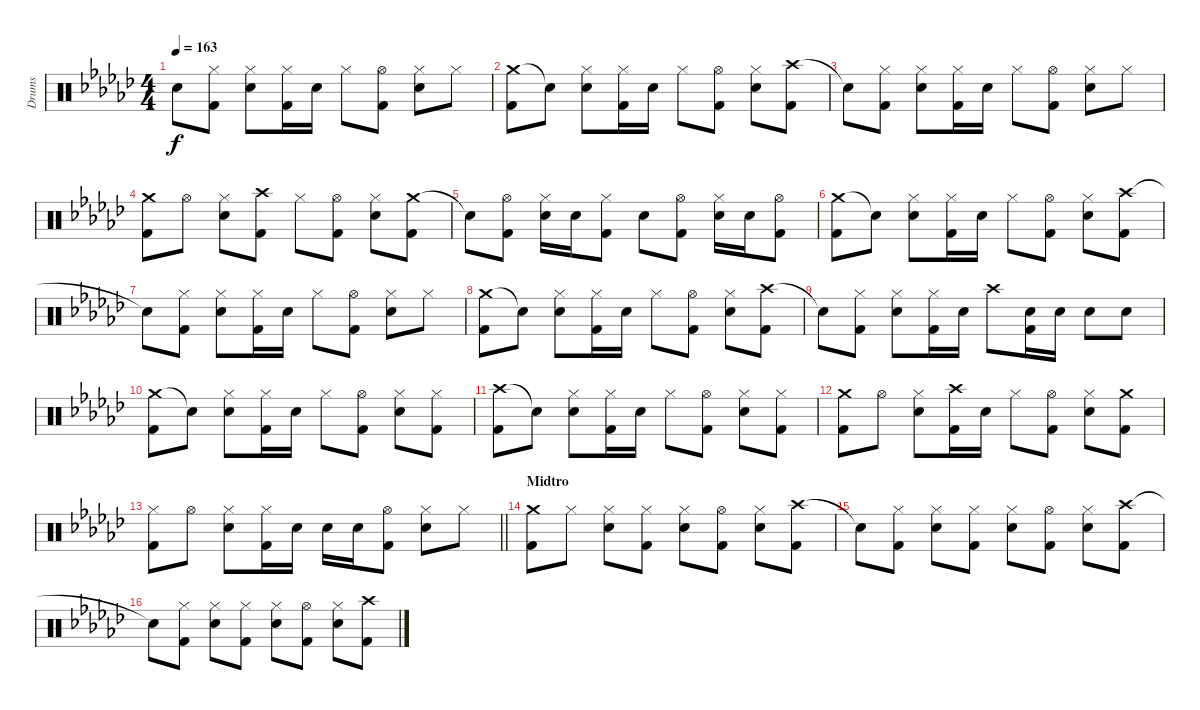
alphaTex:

\track ("Drums" "Drums") {mute instrument percussion}
\staff {score}
\articulation defaults
\ts (4 4)
\tempo 163
\clef neutral
\ks gb "Snare (hit)"{t}.8{dy f}
("Hi-Hat (closed)" "Kick (hit) 2").8 ("Hi-Hat (closed)" "Snare (hit) 2").8 ("Hi-Hat (closed)" "Kick (hit) 2").16 "Snare (hit) 2".16 "Hi-Hat (closed)".8 ("Hi-Hat (open)" "Kick (hit) 2").8 ("Hi-Hat (closed)" "Snare (hit) 2").8 "Hi-Hat (closed)".8 |
("Crash medium (hit)" "Kick (hit) 2").8 "Snare (hit)"{t}.8 ("Hi-Hat (closed)" "Snare (hit) 2").8 ("Hi-Hat (closed)" "Kick (hit) 2").16 "Snare (hit) 2".16 "Hi-Hat (closed)".8 ("Hi-Hat (open)" "Kick (hit) 2").8 ("Hi-Hat (closed)" "Snare (hit) 2").8 ("Crash high (hit)" "Kick (hit) 2").8 |
"Snare (hit)"{t}.8 ("Hi-Hat (closed)" "Kick (hit) 2").8 ("Hi-Hat (closed)" "Snare (hit) 2").8 ("Hi-Hat (closed)" "Kick (hit) 2").16 "Snare (hit) 2".16 "Hi-Hat (closed)".8 ("Hi-Hat (open)" "Kick (hit) 2").8 ("Hi-Hat (closed)" "Snare (hit) 2").8 "Hi-Hat (closed)".8 |
("Crash medium (hit)" "Kick (hit) 2").8 "Hi-Hat (open)".8 ("Hi-Hat (closed)" "Snare (hit) 2").8 ("Crash high (hit)" "Kick (hit) 2").8 "Hi-Hat (closed)".8 ("Hi-Hat (open)" "Kick (hit) 2").8 ("Hi-Hat (closed)" "Snare (hit) 2").8 ("Crash medium (hit)" "Kick (hit) 2").8 |
"Snare (hit)"{t}.8 ("Hi-Hat (open)" "Kick (hit) 2").8 ("Hi-Hat (closed)" "Snare (hit) 2").16 "Snare (hit) 2".16 ("Hi-Hat (closed)" "Kick (hit) 2").8 "Snare (hit) 2".8 ("Hi-Hat (open)" "Kick (hit) 2").8 ("Hi-Hat (closed)" "Snare (hit) 2").16 "Snare (hit) 2".16 ("Hi-Hat (open)" "Kick (hit) 2").8 |
("Crash medium (hit)" "Kick (hit) 2").8 "Snare (hit)"{t}.8 ("Hi-Hat (closed)" "Snare (hit) 2").8 ("Hi-Hat (closed)" "Kick (hit) 2").16 "Snare (hit) 2".16 "Hi-Hat (closed)".8 ("Hi-Hat (open)" "Kick (hit) 2").8 ("Hi-Hat (closed)" "Snare (hit) 2").8 ("Crash high (hit)" "Kick (hit) 2").8 |
"Snare (hit)"{t}.8 ("Hi-Hat (closed)" "Kick (hit) 2").8 ("Hi-Hat (closed)" "Snare (hit) 2").8 ("Hi-Hat (closed)" "Kick (hit) 2").16 "Snare (hit) 2".16 "Hi-Hat (closed)".8 ("Hi-Hat (open)" "Kick (hit) 2").8 ("Hi-Hat (closed)" "Snare (hit) 2").8 "Hi-Hat (closed)".8 |
("Crash medium (hit)" "Kick (hit) 2").8 "Snare (hit)"{t}.8 ("Hi-Hat (closed)" "Snare (hit) 2").8 ("Hi-Hat (closed)" "Kick (hit) 2").16 "Snare (hit) 2".16 "Hi-Hat (closed)".8 ("Hi-Hat (open)" "Kick (hit) 2").8 ("Hi-Hat (closed)" "Snare (hit) 2").8 ("Crash high (hit)" "Kick (hit) 2").8 |
"Snare (hit)"{t}.8 ("Hi-Hat (closed)" "Kick (hit) 2").8 ("Hi-Hat (closed)" "Snare (hit) 2").8 ("Hi-Hat (closed)" "Kick (hit) 2").16 "Snare (hit) 2".16 "Crash high (hit)".8 ("Snare (hit) 2" "Kick (hit) 2").16 "Snare (hit) 2".16 "Snare (hit) 2".8 "Snare (hit) 2".8 |
("Crash medium (hit)" "Kick (hit) 2").8 "Snare (hit)"{t}.8 ("Hi-Hat (closed)" "Snare (hit) 2").8 ("Hi-Hat (closed)" "Kick (hit) 2").16 "Snare (hit) 2".16 "Hi-Hat (closed)".8 ("Hi-Hat (open)" "Kick (hit) 2").8 ("Hi-Hat (closed)" "Snare (hit) 2").8 ("Hi-Hat (closed)" "Kick (hit) 2").8 |
("Crash high (hit)" "Kick (hit) 2").8 "Snare (hit)"{t}.8 ("Hi-Hat (closed)" "Snare (hit) 2").8 ("Hi-Hat (closed)" "Kick (hit) 2").16 "Snare (hit) 2".16 "Hi-Hat (closed)".8 ("Hi-Hat (open)" "Kick (hit) 2").8 ("Hi-Hat (closed)" "Snare (hit) 2").8 ("Hi-Hat (closed)" "Kick (hit) 2").8 |
("Crash medium (hit)" "Kick (hit) 2").8 "Hi-Hat (open)".8 ("Hi-Hat (closed)" "Snare (hit) 2").8 ("Crash high (hit)" "Kick (hit) 2").16 "Snare (hit) 2".16 "Hi-Hat (closed)".8 ("Hi-Hat (open)" "Kick (hit) 2").8 ("Hi-Hat (closed)" "Snare (hit) 2").8 ("Crash medium (hit)" "Kick (hit) 2").8 |
\barLineRight lightlight
("Hi-Hat (closed)" "Kick (hit) 2").8 "Hi-Hat (open)".8 ("Hi-Hat (closed)" "Snare (hit) 2").8 ("Hi-Hat (closed)" "Kick (hit) 2").16 "Snare (hit) 2".16 "Snare (hit) 2".16 "Snare (hit) 2".16 ("Hi-Hat (open)" "Kick (hit) 2").8 ("Hi-Hat (closed)" "Snare (hit) 2").8 "Hi-Hat (closed)".8 |
\section ("" "Midtro")
("Crash medium (hit)" "Kick (hit) 2").8 "Hi-Hat (closed)".8 ("Hi-Hat (closed)" "Snare (hit) 2").8 ("Hi-Hat (closed)" "Kick (hit) 2").8 ("Hi-Hat (closed)" "Snare (hit) 2").8 ("Hi-Hat (open)" "Kick (hit) 2").8 ("Hi-Hat (closed)" "Snare (hit) 2").8 ("Crash high (hit)" "Kick (hit) 2").8 |
"Snare (hit)"{t}.8 ("Hi-Hat (closed)" "Kick (hit) 2").8 ("Hi-Hat (closed)" "Snare (hit) 2").8 ("Hi-Hat (closed)" "Kick (hit) 2").8 ("Hi-Hat (closed)" "Snare (hit) 2").8 ("Hi-Hat (open)" "Kick (hit) 2").8 ("Hi-Hat (closed)" "Snare (hit) 2").8 ("Crash high (hit)" "Kick (hit) 2").8 |
"Snare (hit)"{t}.8 ("Hi-Hat (closed)" "Kick (hit) 2").8 ("Hi-Hat (closed)" "Snare (hit) 2").8 ("Hi-Hat (closed)" "Kick (hit) 2").8 ("Hi-Hat (closed)" "Snare (hit) 2").8 ("Hi-Hat (open)" "Kick (hit) 2").8 ("Hi-Hat (closed)" "Snare (hit) 2").8 ("Crash high (hit)" "Kick (hit) 2").8
